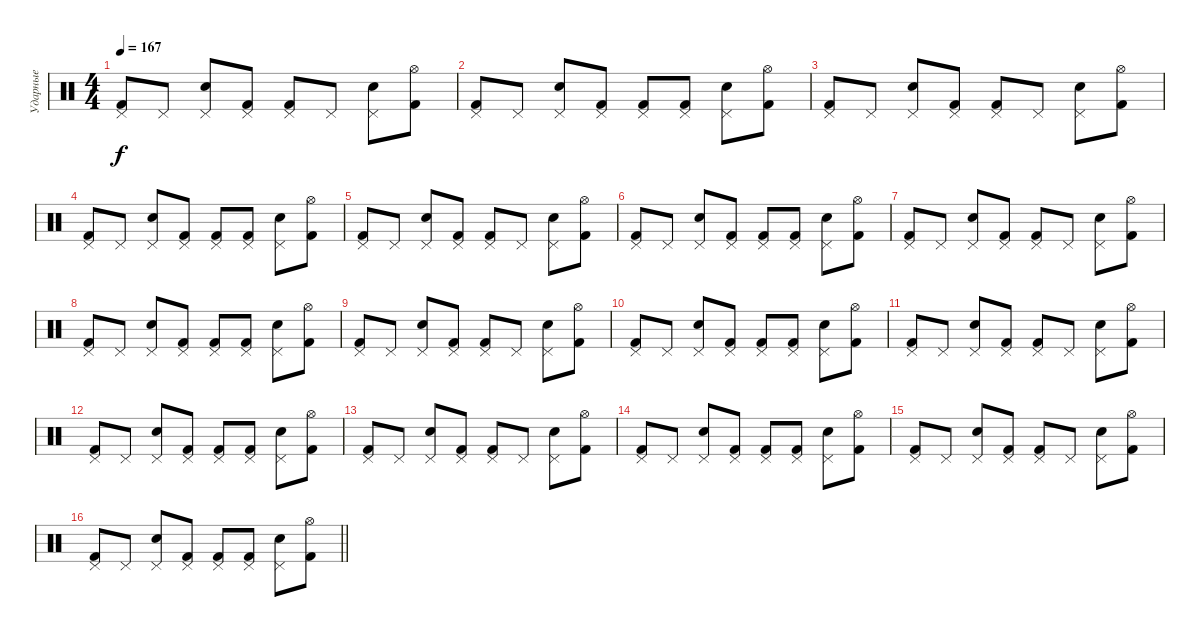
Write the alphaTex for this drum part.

\track ("Ударные" "Ударные") {instrument percussion}
\staff {score}
\articulation defaults
\ts (4 4)
\tempo 167
\clef neutral
\ks c
("Pedal Hi-Hat (hit)" "Kick (hit) 2").8{dy f} "Pedal Hi-Hat (hit)".8 ("Pedal Hi-Hat (hit)" "Electric Snare (hit)").8 ("Pedal Hi-Hat (hit)" "Kick (hit) 2").8 ("Pedal Hi-Hat (hit)" "Kick (hit) 2").8 "Pedal Hi-Hat (hit)".8 ("Pedal Hi-Hat (hit)" "Electric Snare (hit)").8 ("Hi-Hat (open)" "Kick (hit) 2").8 |
("Pedal Hi-Hat (hit)" "Kick (hit) 2").8 "Pedal Hi-Hat (hit)".8 ("Pedal Hi-Hat (hit)" "Electric Snare (hit)").8 ("Pedal Hi-Hat (hit)" "Kick (hit) 2").8 ("Pedal Hi-Hat (hit)" "Kick (hit) 2").8 ("Pedal Hi-Hat (hit)" "Kick (hit) 2").8 ("Pedal Hi-Hat (hit)" "Electric Snare (hit)").8 ("Hi-Hat (open)" "Kick (hit) 2").8 |
("Pedal Hi-Hat (hit)" "Kick (hit) 2").8 "Pedal Hi-Hat (hit)".8 ("Pedal Hi-Hat (hit)" "Electric Snare (hit)").8 ("Pedal Hi-Hat (hit)" "Kick (hit) 2").8 ("Pedal Hi-Hat (hit)" "Kick (hit) 2").8 "Pedal Hi-Hat (hit)".8 ("Pedal Hi-Hat (hit)" "Electric Snare (hit)").8 ("Hi-Hat (open)" "Kick (hit) 2").8 |
("Pedal Hi-Hat (hit)" "Kick (hit) 2").8 "Pedal Hi-Hat (hit)".8 ("Pedal Hi-Hat (hit)" "Electric Snare (hit)").8 ("Pedal Hi-Hat (hit)" "Kick (hit) 2").8 ("Pedal Hi-Hat (hit)" "Kick (hit) 2").8 ("Pedal Hi-Hat (hit)" "Kick (hit) 2").8 ("Pedal Hi-Hat (hit)" "Electric Snare (hit)").8 ("Hi-Hat (open)" "Kick (hit) 2").8 |
("Pedal Hi-Hat (hit)" "Kick (hit) 2").8 "Pedal Hi-Hat (hit)".8 ("Pedal Hi-Hat (hit)" "Electric Snare (hit)").8 ("Pedal Hi-Hat (hit)" "Kick (hit) 2").8 ("Pedal Hi-Hat (hit)" "Kick (hit) 2").8 "Pedal Hi-Hat (hit)".8 ("Pedal Hi-Hat (hit)" "Electric Snare (hit)").8 ("Hi-Hat (open)" "Kick (hit) 2").8 |
("Pedal Hi-Hat (hit)" "Kick (hit) 2").8 "Pedal Hi-Hat (hit)".8 ("Pedal Hi-Hat (hit)" "Electric Snare (hit)").8 ("Pedal Hi-Hat (hit)" "Kick (hit) 2").8 ("Pedal Hi-Hat (hit)" "Kick (hit) 2").8 ("Pedal Hi-Hat (hit)" "Kick (hit) 2").8 ("Pedal Hi-Hat (hit)" "Electric Snare (hit)").8 ("Hi-Hat (open)" "Kick (hit) 2").8 |
("Pedal Hi-Hat (hit)" "Kick (hit) 2").8 "Pedal Hi-Hat (hit)".8 ("Pedal Hi-Hat (hit)" "Electric Snare (hit)").8 ("Pedal Hi-Hat (hit)" "Kick (hit) 2").8 ("Pedal Hi-Hat (hit)" "Kick (hit) 2").8 "Pedal Hi-Hat (hit)".8 ("Pedal Hi-Hat (hit)" "Electric Snare (hit)").8 ("Hi-Hat (open)" "Kick (hit) 2").8 |
("Pedal Hi-Hat (hit)" "Kick (hit) 2").8 "Pedal Hi-Hat (hit)".8 ("Pedal Hi-Hat (hit)" "Electric Snare (hit)").8 ("Pedal Hi-Hat (hit)" "Kick (hit) 2").8 ("Pedal Hi-Hat (hit)" "Kick (hit) 2").8 ("Pedal Hi-Hat (hit)" "Kick (hit) 2").8 ("Pedal Hi-Hat (hit)" "Electric Snare (hit)").8 ("Hi-Hat (open)" "Kick (hit) 2").8 |
("Pedal Hi-Hat (hit)" "Kick (hit) 2").8 "Pedal Hi-Hat (hit)".8 ("Pedal Hi-Hat (hit)" "Electric Snare (hit)").8 ("Pedal Hi-Hat (hit)" "Kick (hit) 2").8 ("Pedal Hi-Hat (hit)" "Kick (hit) 2").8 "Pedal Hi-Hat (hit)".8 ("Pedal Hi-Hat (hit)" "Electric Snare (hit)").8 ("Hi-Hat (open)" "Kick (hit) 2").8 |
("Pedal Hi-Hat (hit)" "Kick (hit) 2").8 "Pedal Hi-Hat (hit)".8 ("Pedal Hi-Hat (hit)" "Electric Snare (hit)").8 ("Pedal Hi-Hat (hit)" "Kick (hit) 2").8 ("Pedal Hi-Hat (hit)" "Kick (hit) 2").8 ("Pedal Hi-Hat (hit)" "Kick (hit) 2").8 ("Pedal Hi-Hat (hit)" "Electric Snare (hit)").8 ("Hi-Hat (open)" "Kick (hit) 2").8 |
("Pedal Hi-Hat (hit)" "Kick (hit) 2").8 "Pedal Hi-Hat (hit)".8 ("Pedal Hi-Hat (hit)" "Electric Snare (hit)").8 ("Pedal Hi-Hat (hit)" "Kick (hit) 2").8 ("Pedal Hi-Hat (hit)" "Kick (hit) 2").8 "Pedal Hi-Hat (hit)".8 ("Pedal Hi-Hat (hit)" "Electric Snare (hit)").8 ("Hi-Hat (open)" "Kick (hit) 2").8 |
("Pedal Hi-Hat (hit)" "Kick (hit) 2").8 "Pedal Hi-Hat (hit)".8 ("Pedal Hi-Hat (hit)" "Electric Snare (hit)").8 ("Pedal Hi-Hat (hit)" "Kick (hit) 2").8 ("Pedal Hi-Hat (hit)" "Kick (hit) 2").8 ("Pedal Hi-Hat (hit)" "Kick (hit) 2").8 ("Pedal Hi-Hat (hit)" "Electric Snare (hit)").8 ("Hi-Hat (open)" "Kick (hit) 2").8 |
("Pedal Hi-Hat (hit)" "Kick (hit) 2").8 "Pedal Hi-Hat (hit)".8 ("Pedal Hi-Hat (hit)" "Electric Snare (hit)").8 ("Pedal Hi-Hat (hit)" "Kick (hit) 2").8 ("Pedal Hi-Hat (hit)" "Kick (hit) 2").8 "Pedal Hi-Hat (hit)".8 ("Pedal Hi-Hat (hit)" "Electric Snare (hit)").8 ("Hi-Hat (open)" "Kick (hit) 2").8 |
("Pedal Hi-Hat (hit)" "Kick (hit) 2").8 "Pedal Hi-Hat (hit)".8 ("Pedal Hi-Hat (hit)" "Electric Snare (hit)").8 ("Pedal Hi-Hat (hit)" "Kick (hit) 2").8 ("Pedal Hi-Hat (hit)" "Kick (hit) 2").8 ("Pedal Hi-Hat (hit)" "Kick (hit) 2").8 ("Pedal Hi-Hat (hit)" "Electric Snare (hit)").8 ("Hi-Hat (open)" "Kick (hit) 2").8 |
("Pedal Hi-Hat (hit)" "Kick (hit) 2").8 "Pedal Hi-Hat (hit)".8 ("Pedal Hi-Hat (hit)" "Electric Snare (hit)").8 ("Pedal Hi-Hat (hit)" "Kick (hit) 2").8 ("Pedal Hi-Hat (hit)" "Kick (hit) 2").8 "Pedal Hi-Hat (hit)".8 ("Pedal Hi-Hat (hit)" "Electric Snare (hit)").8 ("Hi-Hat (open)" "Kick (hit) 2").8 |
\barLineRight lightlight
("Pedal Hi-Hat (hit)" "Kick (hit) 2").8 "Pedal Hi-Hat (hit)".8 ("Pedal Hi-Hat (hit)" "Electric Snare (hit)").8 ("Pedal Hi-Hat (hit)" "Kick (hit) 2").8 ("Pedal Hi-Hat (hit)" "Kick (hit) 2").8 ("Pedal Hi-Hat (hit)" "Kick (hit) 2").8 ("Pedal Hi-Hat (hit)" "Electric Snare (hit)").8 ("Hi-Hat (open)" "Kick (hit) 2").8
